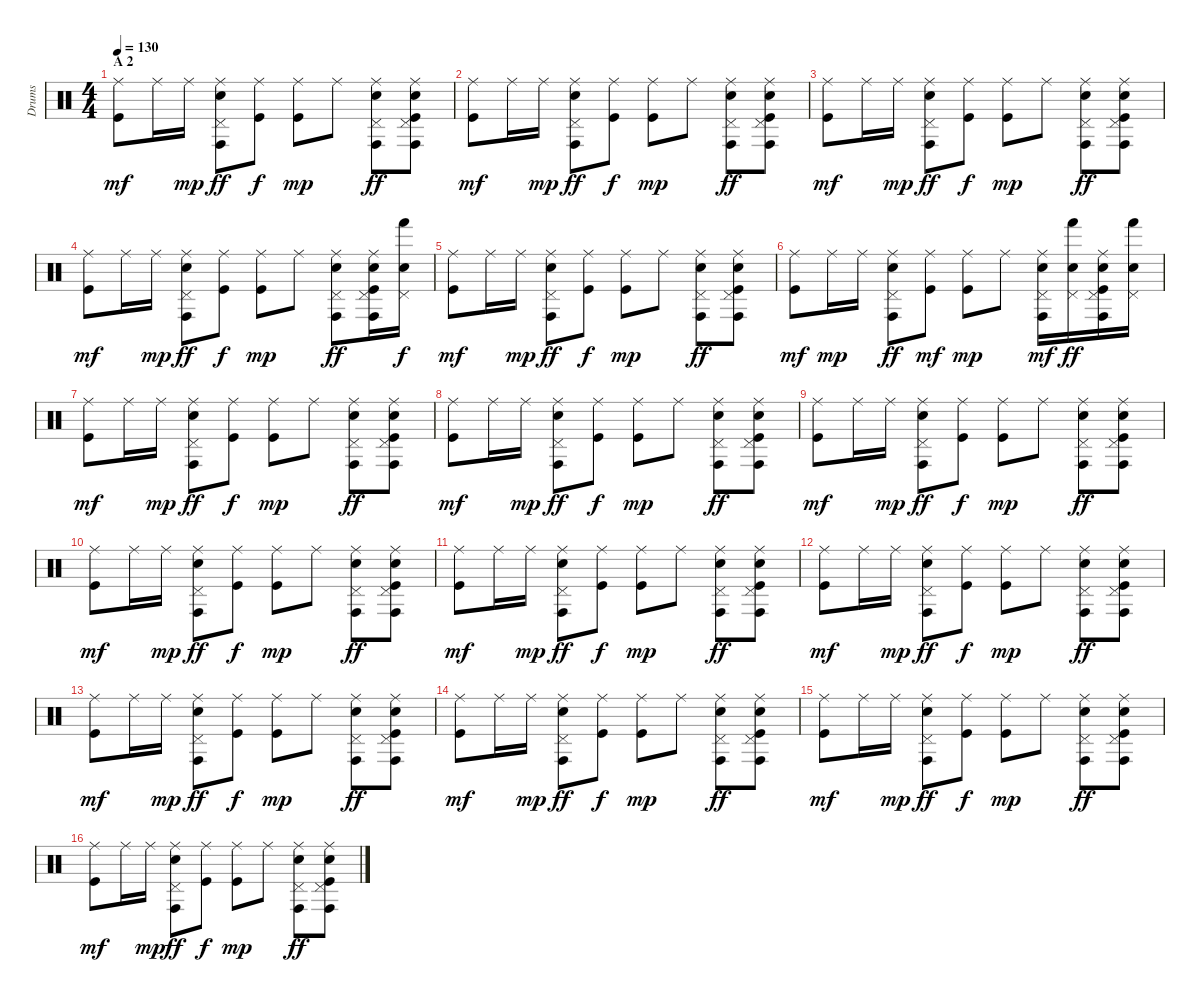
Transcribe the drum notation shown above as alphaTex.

\track ("Drums" "Drums") {instrument percussion}
\staff {score}
\articulation defaults
\ts (4 4)
\section ("" "A 2")
\tempo 130
\clef neutral
\ks c
("Ride (middle)" "Kick (hit)").8{dy mf} "Ride (middle)".16 "Ride (middle)".16{dy mp} ("Ride (middle)" "Pedal Hi-Hat (hit)" "Conga high (hit)" "Electric Snare (hit)").8{dy ff} ("Ride (middle)" "Kick (hit)").8{dy f} ("Ride (middle)" "Kick (hit)").8{dy mp} "Ride (middle)".8 ("Ride (middle)" "Pedal Hi-Hat (hit)" "Conga high (hit)" "Electric Snare (hit)").8{dy ff} ("Ride (middle)" "Pedal Hi-Hat (hit)" "Conga high (hit)" "Electric Snare (hit)" "Kick (hit)").8 |
("Ride (middle)" "Kick (hit)").8{dy mf} "Ride (middle)".16 "Ride (middle)".16{dy mp} ("Ride (middle)" "Pedal Hi-Hat (hit)" "Conga high (hit)" "Electric Snare (hit)").8{dy ff} ("Ride (middle)" "Kick (hit)").8{dy f} ("Ride (middle)" "Kick (hit)").8{dy mp} "Ride (middle)".8 ("Ride (middle)" "Pedal Hi-Hat (hit)" "Conga high (hit)" "Electric Snare (hit)").8{dy ff} ("Ride (middle)" "Pedal Hi-Hat (hit)" "Conga high (hit)" "Electric Snare (hit)" "Kick (hit)").8 |
("Ride (middle)" "Kick (hit)").8{dy mf} "Ride (middle)".16 "Ride (middle)".16{dy mp} ("Ride (middle)" "Pedal Hi-Hat (hit)" "Conga high (hit)" "Electric Snare (hit)").8{dy ff} ("Ride (middle)" "Kick (hit)").8{dy f} ("Ride (middle)" "Kick (hit)").8{dy mp} "Ride (middle)".8 ("Ride (middle)" "Pedal Hi-Hat (hit)" "Conga high (hit)" "Electric Snare (hit)").8{dy ff} ("Ride (middle)" "Pedal Hi-Hat (hit)" "Conga high (hit)" "Electric Snare (hit)" "Kick (hit)").8 |
("Ride (middle)" "Kick (hit)").8{dy mf} "Ride (middle)".16 "Ride (middle)".16{dy mp} ("Ride (middle)" "Pedal Hi-Hat (hit)" "Conga high (hit)" "Electric Snare (hit)").8{dy ff} ("Ride (middle)" "Kick (hit)").8{dy f} ("Ride (middle)" "Kick (hit)").8{dy mp} "Ride (middle)".8 ("Ride (middle)" "Pedal Hi-Hat (hit)" "Conga high (hit)" "Electric Snare (hit)").8{dy ff} ("Ride (middle)" "Pedal Hi-Hat (hit)" "Conga high (hit)" "Electric Snare (hit)" "Kick (hit)").16 ("Pedal Hi-Hat (hit)" "Hand (hit)" "Electric Snare (hit)").16{dy f} |
("Ride (middle)" "Kick (hit)").8{dy mf} "Ride (middle)".16 "Ride (middle)".16{dy mp} ("Ride (middle)" "Pedal Hi-Hat (hit)" "Conga high (hit)" "Electric Snare (hit)").8{dy ff} ("Ride (middle)" "Kick (hit)").8{dy f} ("Ride (middle)" "Kick (hit)").8{dy mp} "Ride (middle)".8 ("Ride (middle)" "Pedal Hi-Hat (hit)" "Conga high (hit)" "Electric Snare (hit)").8{dy ff} ("Ride (middle)" "Pedal Hi-Hat (hit)" "Conga high (hit)" "Electric Snare (hit)" "Kick (hit)").8 |
("Ride (middle)" "Kick (hit)").8{dy mf} "Ride (middle)".16{dy mp} "Ride (middle)".16 ("Ride (middle)" "Pedal Hi-Hat (hit)" "Conga high (hit)" "Electric Snare (hit)").8{dy ff} ("Ride (middle)" "Kick (hit)").8{dy mf} ("Ride (middle)" "Kick (hit)").8{dy mp} "Ride (middle)".8 ("Ride (middle)" "Pedal Hi-Hat (hit)" "Conga high (hit)" "Electric Snare (hit)").16{dy mf} ("Pedal Hi-Hat (hit)" "Hand (hit)" "Electric Snare (hit)").16{dy ff} ("Ride (middle)" "Pedal Hi-Hat (hit)" "Conga high (hit)" "Electric Snare (hit)" "Kick (hit)").16 ("Pedal Hi-Hat (hit)" "Hand (hit)" "Electric Snare (hit)").16 |
("Ride (middle)" "Kick (hit)").8{dy mf} "Ride (middle)".16 "Ride (middle)".16{dy mp} ("Ride (middle)" "Pedal Hi-Hat (hit)" "Conga high (hit)" "Electric Snare (hit)").8{dy ff} ("Ride (middle)" "Kick (hit)").8{dy f} ("Ride (middle)" "Kick (hit)").8{dy mp} "Ride (middle)".8 ("Ride (middle)" "Pedal Hi-Hat (hit)" "Conga high (hit)" "Electric Snare (hit)").8{dy ff} ("Ride (middle)" "Pedal Hi-Hat (hit)" "Conga high (hit)" "Electric Snare (hit)" "Kick (hit)").8 |
("Ride (middle)" "Kick (hit)").8{dy mf} "Ride (middle)".16 "Ride (middle)".16{dy mp} ("Ride (middle)" "Pedal Hi-Hat (hit)" "Conga high (hit)" "Electric Snare (hit)").8{dy ff} ("Ride (middle)" "Kick (hit)").8{dy f} ("Ride (middle)" "Kick (hit)").8{dy mp} "Ride (middle)".8 ("Ride (middle)" "Pedal Hi-Hat (hit)" "Conga high (hit)" "Electric Snare (hit)").8{dy ff} ("Ride (middle)" "Pedal Hi-Hat (hit)" "Conga high (hit)" "Electric Snare (hit)" "Kick (hit)").8 |
("Ride (middle)" "Kick (hit)").8{dy mf} "Ride (middle)".16 "Ride (middle)".16{dy mp} ("Ride (middle)" "Pedal Hi-Hat (hit)" "Conga high (hit)" "Electric Snare (hit)").8{dy ff} ("Ride (middle)" "Kick (hit)").8{dy f} ("Ride (middle)" "Kick (hit)").8{dy mp} "Ride (middle)".8 ("Ride (middle)" "Pedal Hi-Hat (hit)" "Conga high (hit)" "Electric Snare (hit)").8{dy ff} ("Ride (middle)" "Pedal Hi-Hat (hit)" "Conga high (hit)" "Electric Snare (hit)" "Kick (hit)").8 |
("Ride (middle)" "Kick (hit)").8{dy mf} "Ride (middle)".16 "Ride (middle)".16{dy mp} ("Ride (middle)" "Pedal Hi-Hat (hit)" "Conga high (hit)" "Electric Snare (hit)").8{dy ff} ("Ride (middle)" "Kick (hit)").8{dy f} ("Ride (middle)" "Kick (hit)").8{dy mp} "Ride (middle)".8 ("Ride (middle)" "Pedal Hi-Hat (hit)" "Conga high (hit)" "Electric Snare (hit)").8{dy ff} ("Ride (middle)" "Pedal Hi-Hat (hit)" "Conga high (hit)" "Electric Snare (hit)" "Kick (hit)").8 |
("Ride (middle)" "Kick (hit)").8{dy mf} "Ride (middle)".16 "Ride (middle)".16{dy mp} ("Ride (middle)" "Pedal Hi-Hat (hit)" "Conga high (hit)" "Electric Snare (hit)").8{dy ff} ("Ride (middle)" "Kick (hit)").8{dy f} ("Ride (middle)" "Kick (hit)").8{dy mp} "Ride (middle)".8 ("Ride (middle)" "Pedal Hi-Hat (hit)" "Conga high (hit)" "Electric Snare (hit)").8{dy ff} ("Ride (middle)" "Pedal Hi-Hat (hit)" "Conga high (hit)" "Electric Snare (hit)" "Kick (hit)").8 |
("Ride (middle)" "Kick (hit)").8{dy mf} "Ride (middle)".16 "Ride (middle)".16{dy mp} ("Ride (middle)" "Pedal Hi-Hat (hit)" "Conga high (hit)" "Electric Snare (hit)").8{dy ff} ("Ride (middle)" "Kick (hit)").8{dy f} ("Ride (middle)" "Kick (hit)").8{dy mp} "Ride (middle)".8 ("Ride (middle)" "Pedal Hi-Hat (hit)" "Conga high (hit)" "Electric Snare (hit)").8{dy ff} ("Ride (middle)" "Pedal Hi-Hat (hit)" "Conga high (hit)" "Electric Snare (hit)" "Kick (hit)").8 |
("Ride (middle)" "Kick (hit)").8{dy mf} "Ride (middle)".16 "Ride (middle)".16{dy mp} ("Ride (middle)" "Pedal Hi-Hat (hit)" "Conga high (hit)" "Electric Snare (hit)").8{dy ff} ("Ride (middle)" "Kick (hit)").8{dy f} ("Ride (middle)" "Kick (hit)").8{dy mp} "Ride (middle)".8 ("Ride (middle)" "Pedal Hi-Hat (hit)" "Conga high (hit)" "Electric Snare (hit)").8{dy ff} ("Ride (middle)" "Pedal Hi-Hat (hit)" "Conga high (hit)" "Electric Snare (hit)" "Kick (hit)").8 |
("Ride (middle)" "Kick (hit)").8{dy mf} "Ride (middle)".16 "Ride (middle)".16{dy mp} ("Ride (middle)" "Pedal Hi-Hat (hit)" "Conga high (hit)" "Electric Snare (hit)").8{dy ff} ("Ride (middle)" "Kick (hit)").8{dy f} ("Ride (middle)" "Kick (hit)").8{dy mp} "Ride (middle)".8 ("Ride (middle)" "Pedal Hi-Hat (hit)" "Conga high (hit)" "Electric Snare (hit)").8{dy ff} ("Ride (middle)" "Pedal Hi-Hat (hit)" "Conga high (hit)" "Electric Snare (hit)" "Kick (hit)").8 |
("Ride (middle)" "Kick (hit)").8{dy mf} "Ride (middle)".16 "Ride (middle)".16{dy mp} ("Ride (middle)" "Pedal Hi-Hat (hit)" "Conga high (hit)" "Electric Snare (hit)").8{dy ff} ("Ride (middle)" "Kick (hit)").8{dy f} ("Ride (middle)" "Kick (hit)").8{dy mp} "Ride (middle)".8 ("Ride (middle)" "Pedal Hi-Hat (hit)" "Conga high (hit)" "Electric Snare (hit)").8{dy ff} ("Ride (middle)" "Pedal Hi-Hat (hit)" "Conga high (hit)" "Electric Snare (hit)" "Kick (hit)").8 |
("Ride (middle)" "Kick (hit)").8{dy mf} "Ride (middle)".16 "Ride (middle)".16{dy mp} ("Ride (middle)" "Pedal Hi-Hat (hit)" "Conga high (hit)" "Electric Snare (hit)").8{dy ff} ("Ride (middle)" "Kick (hit)").8{dy f} ("Ride (middle)" "Kick (hit)").8{dy mp} "Ride (middle)".8 ("Ride (middle)" "Pedal Hi-Hat (hit)" "Conga high (hit)" "Electric Snare (hit)").8{dy ff} ("Ride (middle)" "Pedal Hi-Hat (hit)" "Conga high (hit)" "Electric Snare (hit)" "Kick (hit)").8
